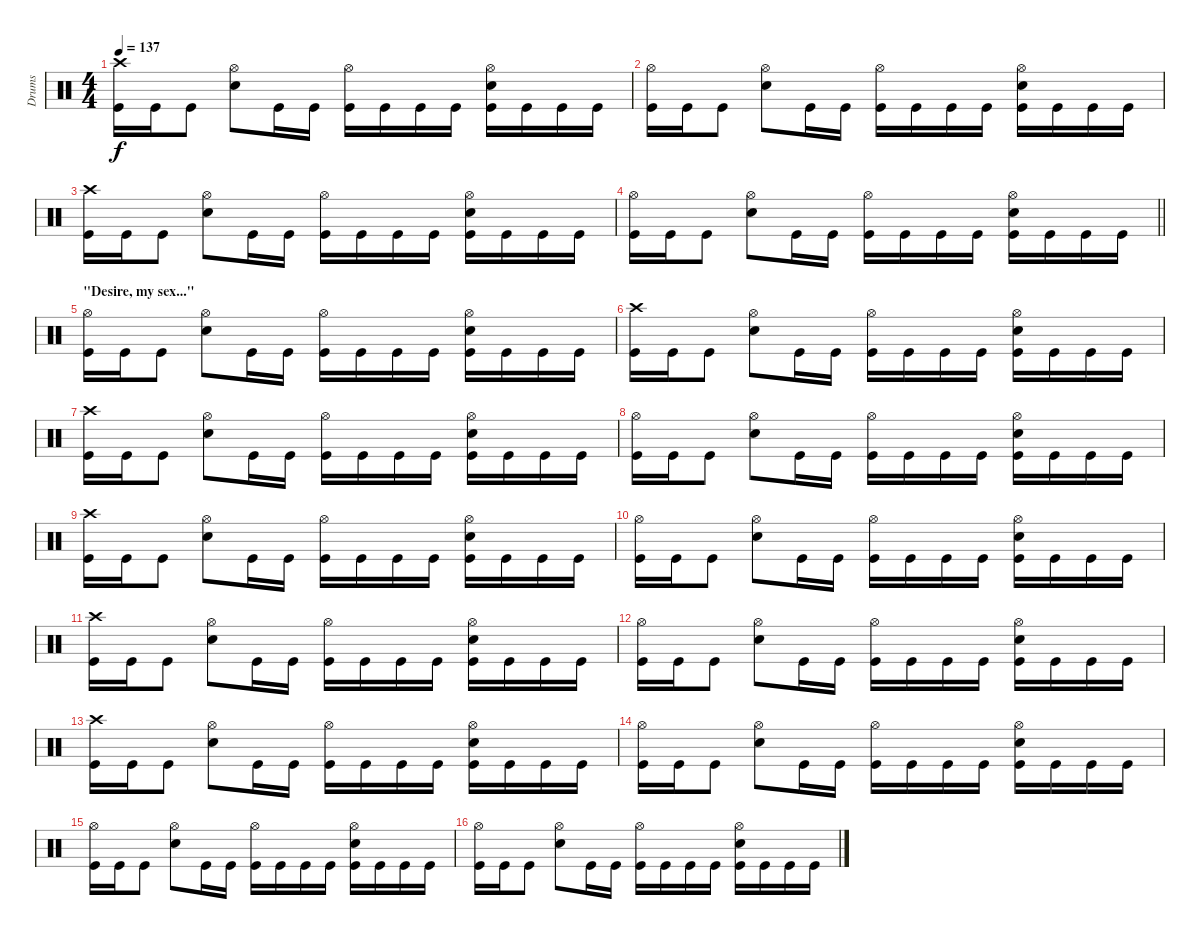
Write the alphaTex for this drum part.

\track ("Drums" "Drums") {instrument percussion}
\staff {score}
\articulation defaults
\ts (4 4)
\tempo 137
\clef neutral
\ks c
("Kick (hit)" "Crash high (hit)").16{dy f} "Kick (hit)".16 "Kick (hit)".8 ("Snare (hit) 2" "Hi-Hat (open)").8 "Kick (hit)".16 "Kick (hit)".16 ("Kick (hit)" "Hi-Hat (open)").16 "Kick (hit)".16 "Kick (hit)".16 "Kick (hit)".16 ("Kick (hit)" "Snare (hit) 2" "Hi-Hat (open)").16 "Kick (hit)".16 "Kick (hit)".16 "Kick (hit)".16 |
("Kick (hit)" "Hi-Hat (open)").16 "Kick (hit)".16 "Kick (hit)".8 ("Snare (hit) 2" "Hi-Hat (open)").8 "Kick (hit)".16 "Kick (hit)".16 ("Kick (hit)" "Hi-Hat (open)").16 "Kick (hit)".16 "Kick (hit)".16 "Kick (hit)".16 ("Kick (hit)" "Snare (hit) 2" "Hi-Hat (open)").16 "Kick (hit)".16 "Kick (hit)".16 "Kick (hit)".16 |
("Kick (hit)" "Crash high (hit)").16 "Kick (hit)".16 "Kick (hit)".8 ("Snare (hit) 2" "Hi-Hat (open)").8 "Kick (hit)".16 "Kick (hit)".16 ("Kick (hit)" "Hi-Hat (open)").16 "Kick (hit)".16 "Kick (hit)".16 "Kick (hit)".16 ("Kick (hit)" "Snare (hit) 2" "Hi-Hat (open)").16 "Kick (hit)".16 "Kick (hit)".16 "Kick (hit)".16 |
\barLineRight lightlight
("Kick (hit)" "Hi-Hat (open)").16 "Kick (hit)".16 "Kick (hit)".8 ("Snare (hit) 2" "Hi-Hat (open)").8 "Kick (hit)".16 "Kick (hit)".16 ("Kick (hit)" "Hi-Hat (open)").16 "Kick (hit)".16 "Kick (hit)".16 "Kick (hit)".16 ("Kick (hit)" "Snare (hit) 2" "Hi-Hat (open)").16 "Kick (hit)".16 "Kick (hit)".16 "Kick (hit)".16 |
\section ("" "\"Desire, my sex...\"")
("Kick (hit)" "Hi-Hat (open)").16 "Kick (hit)".16 "Kick (hit)".8 ("Snare (hit) 2" "Hi-Hat (open)").8 "Kick (hit)".16 "Kick (hit)".16 ("Kick (hit)" "Hi-Hat (open)").16 "Kick (hit)".16 "Kick (hit)".16 "Kick (hit)".16 ("Kick (hit)" "Snare (hit) 2" "Hi-Hat (open)").16 "Kick (hit)".16 "Kick (hit)".16 "Kick (hit)".16 |
("Kick (hit)" "Crash high (hit)").16 "Kick (hit)".16 "Kick (hit)".8 ("Snare (hit) 2" "Hi-Hat (open)").8 "Kick (hit)".16 "Kick (hit)".16 ("Kick (hit)" "Hi-Hat (open)").16 "Kick (hit)".16 "Kick (hit)".16 "Kick (hit)".16 ("Kick (hit)" "Snare (hit) 2" "Hi-Hat (open)").16 "Kick (hit)".16 "Kick (hit)".16 "Kick (hit)".16 |
("Kick (hit)" "Crash high (hit)").16 "Kick (hit)".16 "Kick (hit)".8 ("Snare (hit) 2" "Hi-Hat (open)").8 "Kick (hit)".16 "Kick (hit)".16 ("Kick (hit)" "Hi-Hat (open)").16 "Kick (hit)".16 "Kick (hit)".16 "Kick (hit)".16 ("Kick (hit)" "Snare (hit) 2" "Hi-Hat (open)").16 "Kick (hit)".16 "Kick (hit)".16 "Kick (hit)".16 |
("Kick (hit)" "Hi-Hat (open)").16 "Kick (hit)".16 "Kick (hit)".8 ("Snare (hit) 2" "Hi-Hat (open)").8 "Kick (hit)".16 "Kick (hit)".16 ("Kick (hit)" "Hi-Hat (open)").16 "Kick (hit)".16 "Kick (hit)".16 "Kick (hit)".16 ("Kick (hit)" "Snare (hit) 2" "Hi-Hat (open)").16 "Kick (hit)".16 "Kick (hit)".16 "Kick (hit)".16 |
("Kick (hit)" "Crash high (hit)").16 "Kick (hit)".16 "Kick (hit)".8 ("Snare (hit) 2" "Hi-Hat (open)").8 "Kick (hit)".16 "Kick (hit)".16 ("Kick (hit)" "Hi-Hat (open)").16 "Kick (hit)".16 "Kick (hit)".16 "Kick (hit)".16 ("Kick (hit)" "Snare (hit) 2" "Hi-Hat (open)").16 "Kick (hit)".16 "Kick (hit)".16 "Kick (hit)".16 |
("Kick (hit)" "Hi-Hat (open)").16 "Kick (hit)".16 "Kick (hit)".8 ("Snare (hit) 2" "Hi-Hat (open)").8 "Kick (hit)".16 "Kick (hit)".16 ("Kick (hit)" "Hi-Hat (open)").16 "Kick (hit)".16 "Kick (hit)".16 "Kick (hit)".16 ("Kick (hit)" "Snare (hit) 2" "Hi-Hat (open)").16 "Kick (hit)".16 "Kick (hit)".16 "Kick (hit)".16 |
("Kick (hit)" "Crash high (hit)").16 "Kick (hit)".16 "Kick (hit)".8 ("Snare (hit) 2" "Hi-Hat (open)").8 "Kick (hit)".16 "Kick (hit)".16 ("Kick (hit)" "Hi-Hat (open)").16 "Kick (hit)".16 "Kick (hit)".16 "Kick (hit)".16 ("Kick (hit)" "Snare (hit) 2" "Hi-Hat (open)").16 "Kick (hit)".16 "Kick (hit)".16 "Kick (hit)".16 |
("Kick (hit)" "Hi-Hat (open)").16 "Kick (hit)".16 "Kick (hit)".8 ("Snare (hit) 2" "Hi-Hat (open)").8 "Kick (hit)".16 "Kick (hit)".16 ("Kick (hit)" "Hi-Hat (open)").16 "Kick (hit)".16 "Kick (hit)".16 "Kick (hit)".16 ("Kick (hit)" "Snare (hit) 2" "Hi-Hat (open)").16 "Kick (hit)".16 "Kick (hit)".16 "Kick (hit)".16 |
("Kick (hit)" "Crash high (hit)").16 "Kick (hit)".16 "Kick (hit)".8 ("Snare (hit) 2" "Hi-Hat (open)").8 "Kick (hit)".16 "Kick (hit)".16 ("Kick (hit)" "Hi-Hat (open)").16 "Kick (hit)".16 "Kick (hit)".16 "Kick (hit)".16 ("Kick (hit)" "Snare (hit) 2" "Hi-Hat (open)").16 "Kick (hit)".16 "Kick (hit)".16 "Kick (hit)".16 |
("Kick (hit)" "Hi-Hat (open)").16 "Kick (hit)".16 "Kick (hit)".8 ("Snare (hit) 2" "Hi-Hat (open)").8 "Kick (hit)".16 "Kick (hit)".16 ("Kick (hit)" "Hi-Hat (open)").16 "Kick (hit)".16 "Kick (hit)".16 "Kick (hit)".16 ("Kick (hit)" "Snare (hit) 2" "Hi-Hat (open)").16 "Kick (hit)".16 "Kick (hit)".16 "Kick (hit)".16 |
("Kick (hit)" "Hi-Hat (open)").16 "Kick (hit)".16 "Kick (hit)".8 ("Snare (hit) 2" "Hi-Hat (open)").8 "Kick (hit)".16 "Kick (hit)".16 ("Kick (hit)" "Hi-Hat (open)").16 "Kick (hit)".16 "Kick (hit)".16 "Kick (hit)".16 ("Kick (hit)" "Snare (hit) 2" "Hi-Hat (open)").16 "Kick (hit)".16 "Kick (hit)".16 "Kick (hit)".16 |
("Kick (hit)" "Hi-Hat (open)").16 "Kick (hit)".16 "Kick (hit)".8 ("Snare (hit) 2" "Hi-Hat (open)").8 "Kick (hit)".16 "Kick (hit)".16 ("Kick (hit)" "Hi-Hat (open)").16 "Kick (hit)".16 "Kick (hit)".16 "Kick (hit)".16 ("Kick (hit)" "Snare (hit) 2" "Hi-Hat (open)").16 "Kick (hit)".16 "Kick (hit)".16 "Kick (hit)".16
